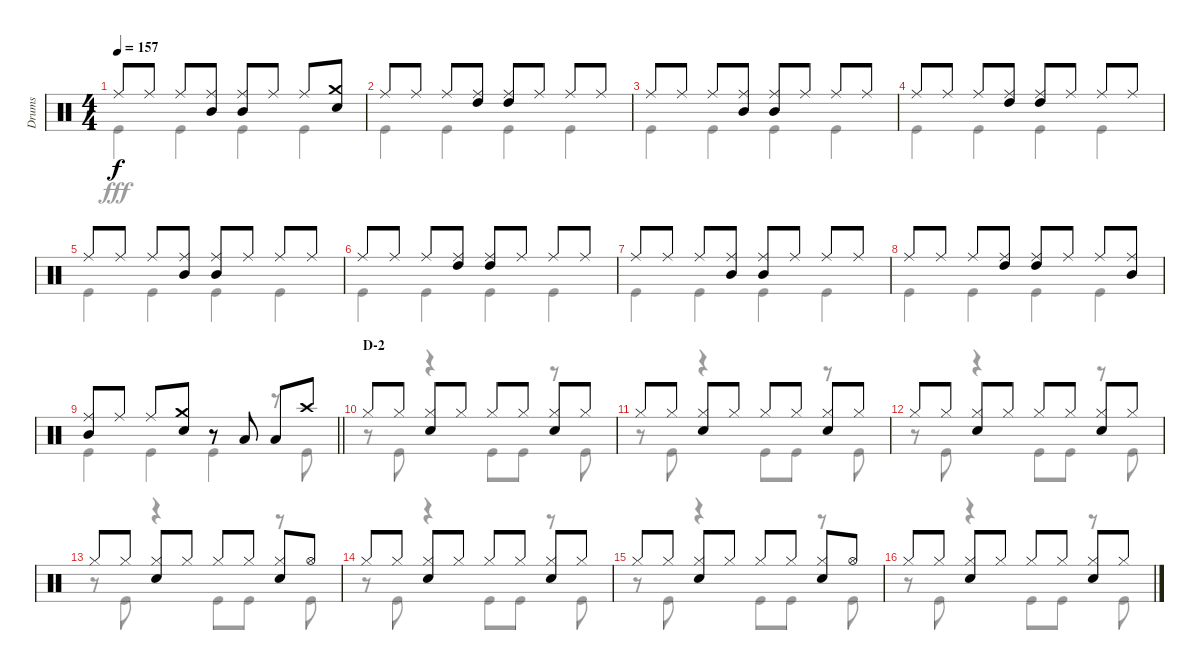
\track ("Drums" "Drums") {instrument percussion}
\staff {score}
\articulation defaults
\voice
\ts (4 4)
\tempo 157
\clef neutral
\ks c "Ride (middle)".8{dy f} "Ride (middle)".8 "Ride (middle)".8
("Ride (middle)" "Mid Tom (hit)").8 ("Ride (middle)" "Mid Tom (hit)").8 "Ride (middle)".8 "Ride (middle)".8 ("Crash medium (hit)" "Snare (hit) 2").8 |
"Ride (middle)".8 "Ride (middle)".8 "Ride (middle)".8 ("Ride (middle)" "High Tom (hit)").8 ("Ride (middle)" "High Tom (hit)").8 "Ride (middle)".8 "Ride (middle)".8 "Ride (middle)".8 |
"Ride (middle)".8 "Ride (middle)".8 "Ride (middle)".8 ("Ride (middle)" "Mid Tom (hit)").8 ("Ride (middle)" "Mid Tom (hit)").8 "Ride (middle)".8 "Ride (middle)".8 "Ride (middle)".8 |
"Ride (middle)".8 "Ride (middle)".8 "Ride (middle)".8 ("Ride (middle)" "High Tom (hit)").8 ("Ride (middle)" "High Tom (hit)").8 "Ride (middle)".8 "Ride (middle)".8 "Ride (middle)".8 |
"Ride (middle)".8 "Ride (middle)".8 "Ride (middle)".8 ("Ride (middle)" "Mid Tom (hit)").8 ("Ride (middle)" "Mid Tom (hit)").8 "Ride (middle)".8 "Ride (middle)".8 "Ride (middle)".8 |
"Ride (middle)".8 "Ride (middle)".8 "Ride (middle)".8 ("Ride (middle)" "High Tom (hit)").8 ("Ride (middle)" "High Tom (hit)").8 "Ride (middle)".8 "Ride (middle)".8 "Ride (middle)".8 |
"Ride (middle)".8 "Ride (middle)".8 "Ride (middle)".8 ("Ride (middle)" "Mid Tom (hit)").8 ("Ride (middle)" "Mid Tom (hit)").8 "Ride (middle)".8 "Ride (middle)".8 "Ride (middle)".8 |
"Ride (middle)".8 "Ride (middle)".8 "Ride (middle)".8 ("Ride (middle)" "High Tom (hit)").8 ("Ride (middle)" "High Tom (hit)").8 "Ride (middle)".8 "Ride (middle)".8 ("Ride (middle)" "Mid Tom (hit)").8 |
\barLineRight lightlight
("Ride (middle)" "Mid Tom (hit)").8 "Ride (middle)".8 "Ride (middle)".8 ("Crash medium (hit)" "Snare (hit) 2").8 r.8 "Low Tom (hit)".8 "Low Tom (hit)".8 "Crash high (hit)".8 |
\section ("" "D-2")
"Hi-Hat (closed)".8 "Hi-Hat (closed)".8 ("Hi-Hat (closed)" "Snare (hit) 2").8 "Hi-Hat (closed)".8 "Hi-Hat (closed)".8 "Hi-Hat (closed)".8 ("Hi-Hat (closed)" "Snare (hit) 2").8 "Hi-Hat (closed)".8 |
"Hi-Hat (closed)".8 "Hi-Hat (closed)".8 ("Hi-Hat (closed)" "Snare (hit) 2").8 "Hi-Hat (closed)".8 "Hi-Hat (closed)".8 "Hi-Hat (closed)".8 ("Hi-Hat (closed)" "Snare (hit) 2").8 "Hi-Hat (closed)".8 |
"Hi-Hat (closed)".8 "Hi-Hat (closed)".8 ("Hi-Hat (closed)" "Snare (hit) 2").8 "Hi-Hat (closed)".8 "Hi-Hat (closed)".8 "Hi-Hat (closed)".8 ("Hi-Hat (closed)" "Snare (hit) 2").8 "Hi-Hat (closed)".8 |
"Hi-Hat (closed)".8 "Hi-Hat (closed)".8 ("Hi-Hat (closed)" "Snare (hit) 2").8 "Hi-Hat (closed)".8 "Hi-Hat (closed)".8 "Hi-Hat (closed)".8 ("Hi-Hat (closed)" "Snare (hit) 2").8 "Hi-Hat (open)".8 |
"Hi-Hat (closed)".8 "Hi-Hat (closed)".8 ("Hi-Hat (closed)" "Snare (hit) 2").8 "Hi-Hat (closed)".8 "Hi-Hat (closed)".8 "Hi-Hat (closed)".8 ("Hi-Hat (closed)" "Snare (hit) 2").8 "Hi-Hat (closed)".8 |
"Hi-Hat (closed)".8 "Hi-Hat (closed)".8 ("Hi-Hat (closed)" "Snare (hit) 2").8 "Hi-Hat (closed)".8 "Hi-Hat (closed)".8 "Hi-Hat (closed)".8 ("Hi-Hat (closed)" "Snare (hit) 2").8 "Hi-Hat (open)".8 |
"Hi-Hat (closed)".8 "Hi-Hat (closed)".8 ("Hi-Hat (closed)" "Snare (hit) 2").8 "Hi-Hat (closed)".8 "Hi-Hat (closed)".8 "Hi-Hat (closed)".8 ("Hi-Hat (closed)" "Snare (hit) 2").8 "Hi-Hat (closed)".8
\voice
\clef neutral
\ottava regular
\simile none
\ks c "Kick (hit)".4{dy fff} "Kick (hit)".4 "Kick (hit)".4 "Kick (hit)".4
|
"Kick (hit)".4 "Kick (hit)".4 "Kick (hit)".4 "Kick (hit)".4 |
"Kick (hit)".4 "Kick (hit)".4 "Kick (hit)".4 "Kick (hit)".4 |
"Kick (hit)".4 "Kick (hit)".4 "Kick (hit)".4 "Kick (hit)".4 |
"Kick (hit)".4 "Kick (hit)".4 "Kick (hit)".4 "Kick (hit)".4 |
"Kick (hit)".4 "Kick (hit)".4 "Kick (hit)".4 "Kick (hit)".4 |
"Kick (hit)".4 "Kick (hit)".4 "Kick (hit)".4 "Kick (hit)".4 |
"Kick (hit)".4 "Kick (hit)".4 "Kick (hit)".4 "Kick (hit)".4 |
\barLineRight lightlight "Kick (hit)".4 "Kick (hit)".4 "Kick (hit)".4
r.8 "Kick (hit)".8 |
r.8 "Kick (hit)".8 r.4 "Kick (hit)".8 "Kick (hit)".8 r.8 "Kick (hit)".8 |
r.8 "Kick (hit)".8 r.4 "Kick (hit)".8 "Kick (hit)".8 r.8 "Kick (hit)".8 |
r.8 "Kick (hit)".8 r.4 "Kick (hit)".8 "Kick (hit)".8 r.8 "Kick (hit)".8 |
r.8 "Kick (hit)".8 r.4 "Kick (hit)".8 "Kick (hit)".8 r.8 "Kick (hit)".8 |
r.8 "Kick (hit)".8 r.4 "Kick (hit)".8 "Kick (hit)".8 r.8 "Kick (hit)".8 |
r.8 "Kick (hit)".8 r.4 "Kick (hit)".8 "Kick (hit)".8 r.8 "Kick (hit)".8 |
r.8 "Kick (hit)".8 r.4 "Kick (hit)".8 "Kick (hit)".8 r.8 "Kick (hit)".8
